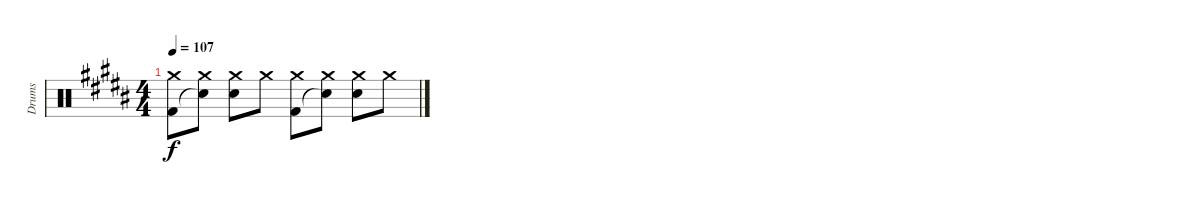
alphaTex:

\track ("Drums" "Drums") {instrument percussion}
\staff {score}
\articulation defaults
\ts (4 4)
\tempo 107
\clef neutral
\ks b
("Crash medium (hit)" "Kick (hit) 2").8{dy f} ("Crash medium (hit)" "Snare (hit)"{t}).8 ("Crash medium (hit)" "Snare (hit) 2").8 "Crash medium (hit)".8 ("Crash medium (hit)" "Kick (hit) 2").8 ("Crash medium (hit)" "Snare (hit)"{t}).8 ("Crash medium (hit)" "Snare (hit) 2").8 "Crash medium (hit)".8
